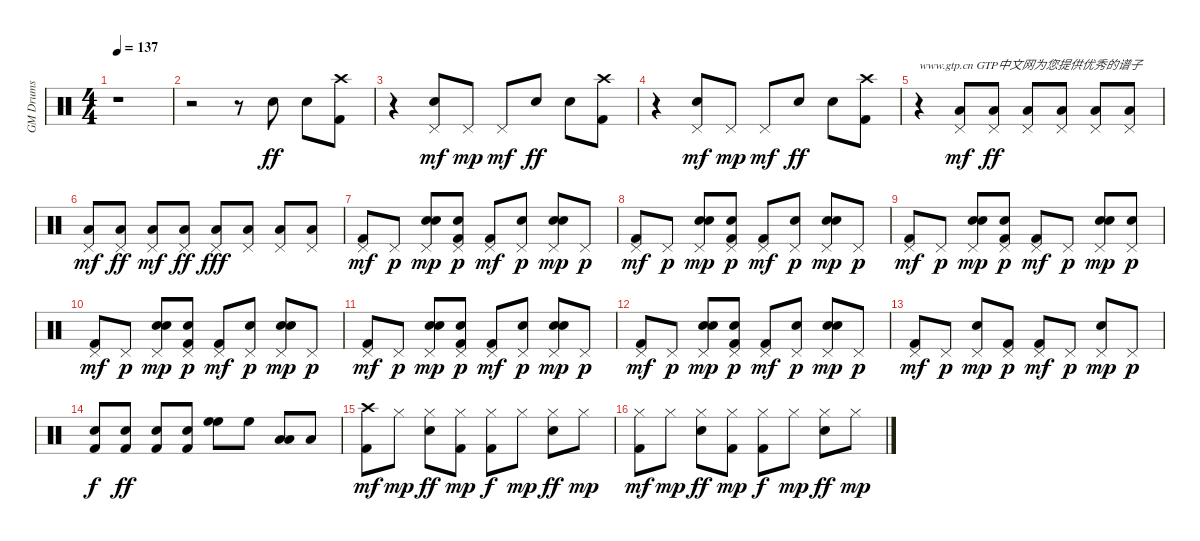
\track ("GM Drums            " "GM Drums  ") {instrument percussion}
\staff {score}
\articulation defaults
\ts (4 4)
\tempo 137
\clef neutral
\ks c
r.1{dy ff} |
r.2 r.8 "Snare (hit) 2".8 "Snare (hit) 2".8 ("Crash high (hit)" "Kick (hit) 2").8 |
r.4 ("Snare (hit) 2" "Pedal Hi-Hat (hit)").8{dy mf} "Pedal Hi-Hat (hit)".8{dy mp} "Pedal Hi-Hat (hit)".8{dy mf} "Snare (hit) 2".8{dy ff} "Snare (hit) 2".8 ("Crash high (hit)" "Kick (hit) 2").8 |
r.4 ("Snare (hit) 2" "Pedal Hi-Hat (hit)").8{dy mf} "Pedal Hi-Hat (hit)".8{dy mp} "Pedal Hi-Hat (hit)".8{dy mf} "Snare (hit) 2".8{dy ff} "Snare (hit) 2".8 ("Crash high (hit)" "Kick (hit) 2").8 |
r.4{txt "www.gtp.cn GTP中文网为您提供优秀的谱子"} ("Low Floor Tom (hit)" "Pedal Hi-Hat (hit)").8{dy mf} ("Pedal Hi-Hat (hit)" "Low Floor Tom (hit)").8{dy ff} ("Pedal Hi-Hat (hit)" "Low Floor Tom (hit)").8 ("Pedal Hi-Hat (hit)" "Low Floor Tom (hit)").8 ("Pedal Hi-Hat (hit)" "Low Floor Tom (hit)").8 ("Pedal Hi-Hat (hit)" "Low Floor Tom (hit)").8 |
("Low Floor Tom (hit)" "Pedal Hi-Hat (hit)").8{dy mf} ("Pedal Hi-Hat (hit)" "Low Floor Tom (hit)").8{dy ff} ("Low Floor Tom (hit)" "Pedal Hi-Hat (hit)").8{dy mf} ("Pedal Hi-Hat (hit)" "Low Floor Tom (hit)").8{dy ff} ("Pedal Hi-Hat (hit)" "Low Floor Tom (hit)").8{dy fff} ("Pedal Hi-Hat (hit)" "Low Floor Tom (hit)").8 ("Pedal Hi-Hat (hit)" "Low Floor Tom (hit)").8 ("Pedal Hi-Hat (hit)" "Low Floor Tom (hit)").8 |
("Kick (hit) 2" "Pedal Hi-Hat (hit)").8{dy mf} "Pedal Hi-Hat (hit)".8{dy p} ("Hand Clap (hit)" "Snare (hit) 2" "Pedal Hi-Hat (hit)").8{dy mp} ("Hand Clap (hit)" "Pedal Hi-Hat (hit)" "Kick (hit) 2").8{dy p} ("Kick (hit) 2" "Pedal Hi-Hat (hit)").8{dy mf} ("Hand Clap (hit)" "Pedal Hi-Hat (hit)").8{dy p} ("Hand Clap (hit)" "Snare (hit) 2" "Pedal Hi-Hat (hit)").8{dy mp} "Pedal Hi-Hat (hit)".8{dy p} |
("Kick (hit) 2" "Pedal Hi-Hat (hit)").8{dy mf} "Pedal Hi-Hat (hit)".8{dy p} ("Hand Clap (hit)" "Snare (hit) 2" "Pedal Hi-Hat (hit)").8{dy mp} ("Hand Clap (hit)" "Pedal Hi-Hat (hit)" "Kick (hit) 2").8{dy p} ("Kick (hit) 2" "Pedal Hi-Hat (hit)").8{dy mf} ("Hand Clap (hit)" "Pedal Hi-Hat (hit)").8{dy p} ("Hand Clap (hit)" "Snare (hit) 2" "Pedal Hi-Hat (hit)").8{dy mp} "Pedal Hi-Hat (hit)".8{dy p} |
("Kick (hit) 2" "Pedal Hi-Hat (hit)").8{dy mf} "Pedal Hi-Hat (hit)".8{dy p} ("Hand Clap (hit)" "Snare (hit) 2" "Pedal Hi-Hat (hit)").8{dy mp} ("Hand Clap (hit)" "Pedal Hi-Hat (hit)" "Kick (hit) 2").8{dy p} ("Kick (hit) 2" "Pedal Hi-Hat (hit)").8{dy mf} "Pedal Hi-Hat (hit)".8{dy p} ("Hand Clap (hit)" "Snare (hit) 2" "Pedal Hi-Hat (hit)").8{dy mp} ("Hand Clap (hit)" "Pedal Hi-Hat (hit)").8{dy p} |
("Kick (hit) 2" "Pedal Hi-Hat (hit)").8{dy mf} "Pedal Hi-Hat (hit)".8{dy p} ("Hand Clap (hit)" "Snare (hit) 2" "Pedal Hi-Hat (hit)").8{dy mp} ("Hand Clap (hit)" "Pedal Hi-Hat (hit)" "Kick (hit) 2").8{dy p} ("Kick (hit) 2" "Pedal Hi-Hat (hit)").8{dy mf} ("Hand Clap (hit)" "Pedal Hi-Hat (hit)").8{dy p} ("Hand Clap (hit)" "Snare (hit) 2" "Pedal Hi-Hat (hit)").8{dy mp} "Pedal Hi-Hat (hit)".8{dy p} |
("Kick (hit) 2" "Pedal Hi-Hat (hit)").8{dy mf} "Pedal Hi-Hat (hit)".8{dy p} ("Hand Clap (hit)" "Snare (hit) 2" "Pedal Hi-Hat (hit)").8{dy mp} ("Hand Clap (hit)" "Pedal Hi-Hat (hit)" "Kick (hit) 2").8{dy p} ("Kick (hit) 2" "Pedal Hi-Hat (hit)").8{dy mf} ("Hand Clap (hit)" "Pedal Hi-Hat (hit)").8{dy p} ("Hand Clap (hit)" "Snare (hit) 2" "Pedal Hi-Hat (hit)").8{dy mp} "Pedal Hi-Hat (hit)".8{dy p} |
("Kick (hit) 2" "Pedal Hi-Hat (hit)").8{dy mf} "Pedal Hi-Hat (hit)".8{dy p} ("Hand Clap (hit)" "Snare (hit) 2" "Pedal Hi-Hat (hit)").8{dy mp} ("Hand Clap (hit)" "Pedal Hi-Hat (hit)" "Kick (hit) 2").8{dy p} ("Kick (hit) 2" "Pedal Hi-Hat (hit)").8{dy mf} ("Hand Clap (hit)" "Pedal Hi-Hat (hit)").8{dy p} ("Hand Clap (hit)" "Snare (hit) 2" "Pedal Hi-Hat (hit)").8{dy mp} "Pedal Hi-Hat (hit)".8{dy p} |
("Kick (hit) 2" "Pedal Hi-Hat (hit)").8{dy mf} "Pedal Hi-Hat (hit)".8{dy p} ("Snare (hit) 2" "Pedal Hi-Hat (hit)").8{dy mp} ("Pedal Hi-Hat (hit)" "Kick (hit) 2").8{dy p} ("Kick (hit) 2" "Pedal Hi-Hat (hit)").8{dy mf} "Pedal Hi-Hat (hit)".8{dy p} ("Snare (hit) 2" "Pedal Hi-Hat (hit)").8{dy mp} "Pedal Hi-Hat (hit)".8{dy p} |
("Snare (hit) 2" "Kick (hit) 2").8{dy f} ("Kick (hit) 2" "Snare (hit) 2").8{dy ff} ("Kick (hit) 2" "Snare (hit) 2").8 ("Snare (hit) 2" "Kick (hit) 2").8 ("High Floor Tom (hit)" "High Floor Tom (hit)").8 "High Floor Tom (hit)".8 ("Low Floor Tom (hit)" "Low Floor Tom (hit)").8 "Low Floor Tom (hit)".8 |
("Kick (hit) 2" "Crash high (hit)").8{dy mf} "Hi-Hat (closed)".8{dy mp} ("Snare (hit) 2" "Hi-Hat (closed)").8{dy ff} ("Hi-Hat (closed)" "Kick (hit) 2").8{dy mp} ("Kick (hit) 2" "Hi-Hat (closed)").8{dy f} "Hi-Hat (closed)".8{dy mp} ("Snare (hit) 2" "Hi-Hat (closed)").8{dy ff} "Hi-Hat (closed)".8{dy mp} |
("Kick (hit) 2" "Hi-Hat (closed)").8{dy mf} "Hi-Hat (closed)".8{dy mp} ("Snare (hit) 2" "Hi-Hat (closed)").8{dy ff} ("Hi-Hat (closed)" "Kick (hit) 2").8{dy mp} ("Kick (hit) 2" "Hi-Hat (closed)").8{dy f} "Hi-Hat (closed)".8{dy mp} ("Snare (hit) 2" "Hi-Hat (closed)").8{dy ff} "Hi-Hat (closed)".8{dy mp}
